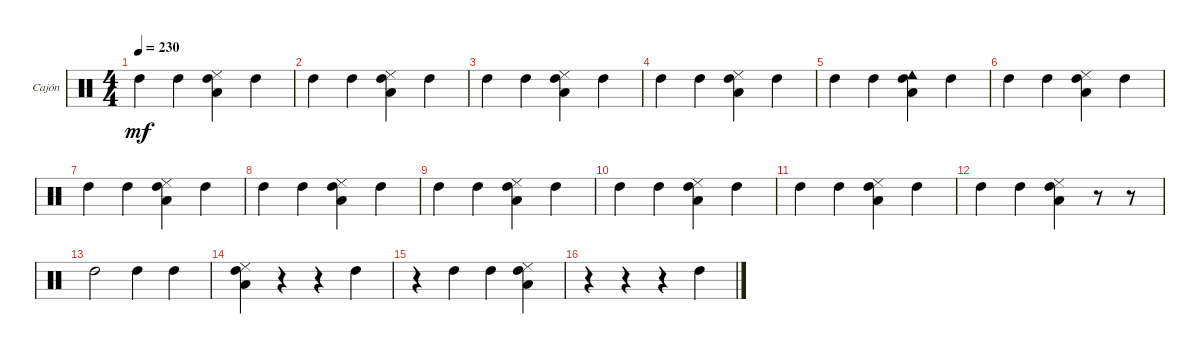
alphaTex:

\defaultSystemsLayout 4
\bracketExtendMode groupsimilarinstruments
\firstSystemTrackNameOrientation horizontal
\otherSystemsTrackNameOrientation horizontal
\track ("Cajón (Ira)" "Cajón") {instrument percussion}
\staff {score}
\articulation defaults
\ts (4 4)
\tempo 230
\clef neutral
\scale
0.333333
\ks c "High Tom (hit)".4{dy mf} "High Tom (hit)".4
("High Tom (hit)" "Cowbell low (tip)" "Low Tom (hit)").4 "High Tom (hit)".4 |
\scale
0.333333 "High Tom (hit)".4 "High Tom (hit)".4 ("High Tom (hit)" "Cowbell low (tip)" "Low Tom (hit)").4 "High Tom (hit)".4 |
\scale
0.333333 "High Tom (hit)".4 "High Tom (hit)".4 ("High Tom (hit)" "Low Tom (hit)" "Cowbell low (tip)").4 "High Tom (hit)".4 |
\scale
0.333333 "High Tom (hit)".4 "High Tom (hit)".4 ("Low Tom (hit)" "Cowbell low (tip)" "High Tom (hit)").4 "High Tom (hit)".4 |
\scale
0.333333 "High Tom (hit)".4 "High Tom (hit)".4 ("High Tom (hit)" "Low Tom (hit)" "Cowbell low (hit)").4 "High Tom (hit)".4 |
\scale
0.333333 "High Tom (hit)".4 "High Tom (hit)".4 ("High Tom (hit)" "Low Tom (hit)" "Cowbell low (tip)").4 "High Tom (hit)".4 |
\scale
0.333333 "High Tom (hit)".4 "High Tom (hit)".4 ("High Tom (hit)" "Low Tom (hit)" "Cowbell low (tip)").4 "High Tom (hit)".4 |
\scale
0.333333 "High Tom (hit)".4 "High Tom (hit)".4 ("High Tom (hit)" "Low Tom (hit)" "Cowbell low (tip)").4 "High Tom (hit)".4 |
\scale
0.333333 "High Tom (hit)".4 "High Tom (hit)".4 ("High Tom (hit)" "Low Tom (hit)" "Cowbell low (tip)").4 "High Tom (hit)".4 |
\scale
0.333333 "High Tom (hit)".4 "High Tom (hit)".4 ("High Tom (hit)" "Low Tom (hit)" "Cowbell low (tip)").4 "High Tom (hit)".4 |
\scale
0.333333 "High Tom (hit)".4 "High Tom (hit)".4 ("High Tom (hit)" "Low Tom (hit)" "Cowbell low (tip)").4 "High Tom (hit)".4 |
\scale
0.333333 "High Tom (hit)".4 "High Tom (hit)".4 ("High Tom (hit)" "Low Tom (hit)" "Cowbell low (tip)").4 r.8 r.8 |
\scale
0.333333 "High Tom (hit)".2 "High Tom (hit)".4 "High Tom (hit)".4 |
\scale
0.333333 ("High Tom (hit)" "Low Tom (hit)" "Cowbell low (tip)").4 r.4 r.4 "High Tom (hit)".4 |
\scale
0.333333 r.4 "High Tom (hit)".4 "High Tom (hit)".4 ("High Tom (hit)" "Low Tom (hit)" "Cowbell low (tip)").4 |
\scale
0.333333 r.4 r.4 r.4 "High Tom (hit)".4
